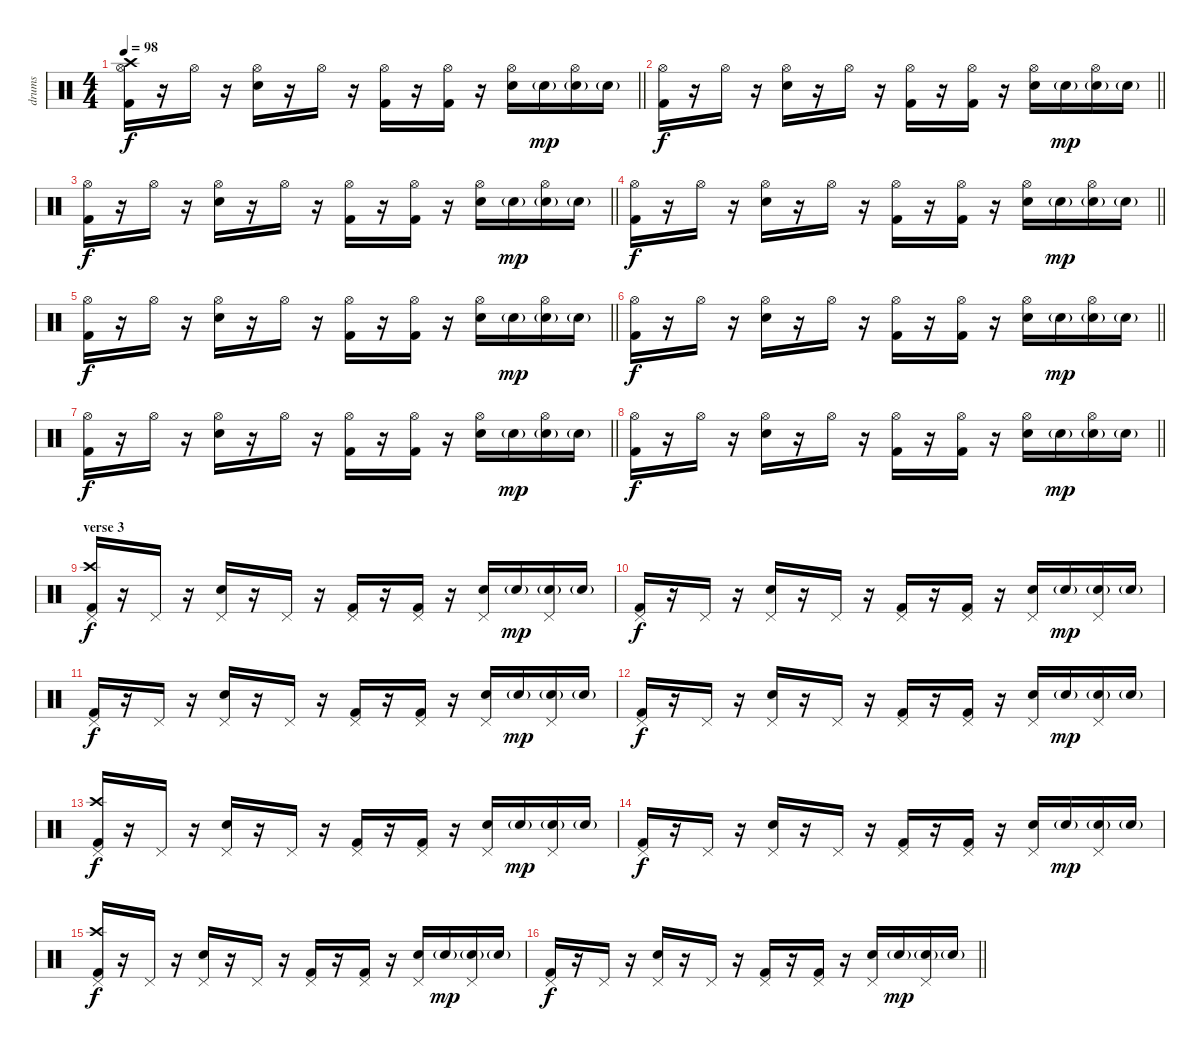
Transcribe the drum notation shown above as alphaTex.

\track ("drums" "drums") {instrument percussion}
\staff {score}
\articulation defaults
\ts (4 4)
\tempo 98
\clef neutral
\barLineRight lightlight
\ks c
("Kick (hit) 2" "Hi-Hat (open)" "Crash high (hit)").16{dy f} r.16 "Hi-Hat (open)".16 r.16 ("Electric Snare (hit)" "Hi-Hat (open)").16 r.16 "Hi-Hat (open)".16 r.16 ("Kick (hit) 2" "Hi-Hat (open)").16 r.16 ("Kick (hit) 2" "Hi-Hat (open)").16 r.16 ("Electric Snare (hit)" "Hi-Hat (open)").16 "Electric Snare (hit)"{g}.16{dy mp} ("Electric Snare (hit)"{g} "Hi-Hat (open)").16 "Electric Snare (hit)"{g}.16 |
\barLineRight lightlight
("Kick (hit) 2" "Hi-Hat (open)").16{dy f} r.16 "Hi-Hat (open)".16 r.16 ("Electric Snare (hit)" "Hi-Hat (open)").16 r.16 "Hi-Hat (open)".16 r.16 ("Kick (hit) 2" "Hi-Hat (open)").16 r.16 ("Kick (hit) 2" "Hi-Hat (open)").16 r.16 ("Electric Snare (hit)" "Hi-Hat (open)").16 "Electric Snare (hit)"{g}.16{dy mp} ("Electric Snare (hit)"{g} "Hi-Hat (open)").16 "Electric Snare (hit)"{g}.16 |
\barLineRight lightlight
("Kick (hit) 2" "Hi-Hat (open)").16{dy f} r.16 "Hi-Hat (open)".16 r.16 ("Electric Snare (hit)" "Hi-Hat (open)").16 r.16 "Hi-Hat (open)".16 r.16 ("Kick (hit) 2" "Hi-Hat (open)").16 r.16 ("Kick (hit) 2" "Hi-Hat (open)").16 r.16 ("Electric Snare (hit)" "Hi-Hat (open)").16 "Electric Snare (hit)"{g}.16{dy mp} ("Electric Snare (hit)"{g} "Hi-Hat (open)").16 "Electric Snare (hit)"{g}.16 |
\barLineRight lightlight
("Kick (hit) 2" "Hi-Hat (open)").16{dy f} r.16 "Hi-Hat (open)".16 r.16 ("Electric Snare (hit)" "Hi-Hat (open)").16 r.16 "Hi-Hat (open)".16 r.16 ("Kick (hit) 2" "Hi-Hat (open)").16 r.16 ("Kick (hit) 2" "Hi-Hat (open)").16 r.16 ("Electric Snare (hit)" "Hi-Hat (open)").16 "Electric Snare (hit)"{g}.16{dy mp} ("Electric Snare (hit)"{g} "Hi-Hat (open)").16 "Electric Snare (hit)"{g}.16 |
\barLineRight lightlight
("Kick (hit) 2" "Hi-Hat (open)").16{dy f} r.16 "Hi-Hat (open)".16 r.16 ("Electric Snare (hit)" "Hi-Hat (open)").16 r.16 "Hi-Hat (open)".16 r.16 ("Kick (hit) 2" "Hi-Hat (open)").16 r.16 ("Kick (hit) 2" "Hi-Hat (open)").16 r.16 ("Electric Snare (hit)" "Hi-Hat (open)").16 "Electric Snare (hit)"{g}.16{dy mp} ("Electric Snare (hit)"{g} "Hi-Hat (open)").16 "Electric Snare (hit)"{g}.16 |
\barLineRight lightlight
("Kick (hit) 2" "Hi-Hat (open)").16{dy f} r.16 "Hi-Hat (open)".16 r.16 ("Electric Snare (hit)" "Hi-Hat (open)").16 r.16 "Hi-Hat (open)".16 r.16 ("Kick (hit) 2" "Hi-Hat (open)").16 r.16 ("Kick (hit) 2" "Hi-Hat (open)").16 r.16 ("Electric Snare (hit)" "Hi-Hat (open)").16 "Electric Snare (hit)"{g}.16{dy mp} ("Electric Snare (hit)"{g} "Hi-Hat (open)").16 "Electric Snare (hit)"{g}.16 |
\barLineRight lightlight
("Kick (hit) 2" "Hi-Hat (open)").16{dy f} r.16 "Hi-Hat (open)".16 r.16 ("Electric Snare (hit)" "Hi-Hat (open)").16 r.16 "Hi-Hat (open)".16 r.16 ("Kick (hit) 2" "Hi-Hat (open)").16 r.16 ("Kick (hit) 2" "Hi-Hat (open)").16 r.16 ("Electric Snare (hit)" "Hi-Hat (open)").16 "Electric Snare (hit)"{g}.16{dy mp} ("Electric Snare (hit)"{g} "Hi-Hat (open)").16 "Electric Snare (hit)"{g}.16 |
\barLineRight lightlight
("Kick (hit) 2" "Hi-Hat (open)").16{dy f} r.16 "Hi-Hat (open)".16 r.16 ("Electric Snare (hit)" "Hi-Hat (open)").16 r.16 "Hi-Hat (open)".16 r.16 ("Kick (hit) 2" "Hi-Hat (open)").16 r.16 ("Kick (hit) 2" "Hi-Hat (open)").16 r.16 ("Electric Snare (hit)" "Hi-Hat (open)").16 "Electric Snare (hit)"{g}.16{dy mp} ("Electric Snare (hit)"{g} "Hi-Hat (open)").16 "Electric Snare (hit)"{g}.16 |
\section ("" "verse 3")
("Kick (hit) 2" "Pedal Hi-Hat (hit)" "Crash high (hit)").16{dy f} r.16 "Pedal Hi-Hat (hit)".16 r.16 ("Electric Snare (hit)" "Pedal Hi-Hat (hit)").16 r.16 "Pedal Hi-Hat (hit)".16 r.16 ("Kick (hit) 2" "Pedal Hi-Hat (hit)").16 r.16 ("Kick (hit) 2" "Pedal Hi-Hat (hit)").16 r.16 ("Electric Snare (hit)" "Pedal Hi-Hat (hit)").16 "Electric Snare (hit)"{g}.16{dy mp} ("Electric Snare (hit)"{g} "Pedal Hi-Hat (hit)").16 "Electric Snare (hit)"{g}.16 |
("Kick (hit) 2" "Pedal Hi-Hat (hit)").16{dy f} r.16 "Pedal Hi-Hat (hit)".16 r.16 ("Electric Snare (hit)" "Pedal Hi-Hat (hit)").16 r.16 "Pedal Hi-Hat (hit)".16 r.16 ("Kick (hit) 2" "Pedal Hi-Hat (hit)").16 r.16 ("Kick (hit) 2" "Pedal Hi-Hat (hit)").16 r.16 ("Electric Snare (hit)" "Pedal Hi-Hat (hit)").16 "Electric Snare (hit)"{g}.16{dy mp} ("Electric Snare (hit)"{g} "Pedal Hi-Hat (hit)").16 "Electric Snare (hit)"{g}.16 |
("Kick (hit) 2" "Pedal Hi-Hat (hit)").16{dy f} r.16 "Pedal Hi-Hat (hit)".16 r.16 ("Electric Snare (hit)" "Pedal Hi-Hat (hit)").16 r.16 "Pedal Hi-Hat (hit)".16 r.16 ("Kick (hit) 2" "Pedal Hi-Hat (hit)").16 r.16 ("Kick (hit) 2" "Pedal Hi-Hat (hit)").16 r.16 ("Electric Snare (hit)" "Pedal Hi-Hat (hit)").16 "Electric Snare (hit)"{g}.16{dy mp} ("Electric Snare (hit)"{g} "Pedal Hi-Hat (hit)").16 "Electric Snare (hit)"{g}.16 |
("Kick (hit) 2" "Pedal Hi-Hat (hit)").16{dy f} r.16 "Pedal Hi-Hat (hit)".16 r.16 ("Electric Snare (hit)" "Pedal Hi-Hat (hit)").16 r.16 "Pedal Hi-Hat (hit)".16 r.16 ("Kick (hit) 2" "Pedal Hi-Hat (hit)").16 r.16 ("Kick (hit) 2" "Pedal Hi-Hat (hit)").16 r.16 ("Electric Snare (hit)" "Pedal Hi-Hat (hit)").16 "Electric Snare (hit)"{g}.16{dy mp} ("Electric Snare (hit)"{g} "Pedal Hi-Hat (hit)").16 "Electric Snare (hit)"{g}.16 |
("Kick (hit) 2" "Pedal Hi-Hat (hit)" "Crash high (hit)").16{dy f} r.16 "Pedal Hi-Hat (hit)".16 r.16 ("Electric Snare (hit)" "Pedal Hi-Hat (hit)").16 r.16 "Pedal Hi-Hat (hit)".16 r.16 ("Kick (hit) 2" "Pedal Hi-Hat (hit)").16 r.16 ("Kick (hit) 2" "Pedal Hi-Hat (hit)").16 r.16 ("Electric Snare (hit)" "Pedal Hi-Hat (hit)").16 "Electric Snare (hit)"{g}.16{dy mp} ("Electric Snare (hit)"{g} "Pedal Hi-Hat (hit)").16 "Electric Snare (hit)"{g}.16 |
("Kick (hit) 2" "Pedal Hi-Hat (hit)").16{dy f} r.16 "Pedal Hi-Hat (hit)".16 r.16 ("Electric Snare (hit)" "Pedal Hi-Hat (hit)").16 r.16 "Pedal Hi-Hat (hit)".16 r.16 ("Kick (hit) 2" "Pedal Hi-Hat (hit)").16 r.16 ("Kick (hit) 2" "Pedal Hi-Hat (hit)").16 r.16 ("Electric Snare (hit)" "Pedal Hi-Hat (hit)").16 "Electric Snare (hit)"{g}.16{dy mp} ("Electric Snare (hit)"{g} "Pedal Hi-Hat (hit)").16 "Electric Snare (hit)"{g}.16 |
("Kick (hit) 2" "Pedal Hi-Hat (hit)" "Crash high (hit)").16{dy f} r.16 "Pedal Hi-Hat (hit)".16 r.16 ("Electric Snare (hit)" "Pedal Hi-Hat (hit)").16 r.16 "Pedal Hi-Hat (hit)".16 r.16 ("Kick (hit) 2" "Pedal Hi-Hat (hit)").16 r.16 ("Kick (hit) 2" "Pedal Hi-Hat (hit)").16 r.16 ("Electric Snare (hit)" "Pedal Hi-Hat (hit)").16 "Electric Snare (hit)"{g}.16{dy mp} ("Electric Snare (hit)"{g} "Pedal Hi-Hat (hit)").16 "Electric Snare (hit)"{g}.16 |
\barLineRight lightlight
("Kick (hit) 2" "Pedal Hi-Hat (hit)").16{dy f} r.16 "Pedal Hi-Hat (hit)".16 r.16 ("Electric Snare (hit)" "Pedal Hi-Hat (hit)").16 r.16 "Pedal Hi-Hat (hit)".16 r.16 ("Kick (hit) 2" "Pedal Hi-Hat (hit)").16 r.16 ("Kick (hit) 2" "Pedal Hi-Hat (hit)").16 r.16 ("Electric Snare (hit)" "Pedal Hi-Hat (hit)").16 "Electric Snare (hit)"{g}.16{dy mp} ("Electric Snare (hit)"{g} "Pedal Hi-Hat (hit)").16 "Electric Snare (hit)"{g}.16
